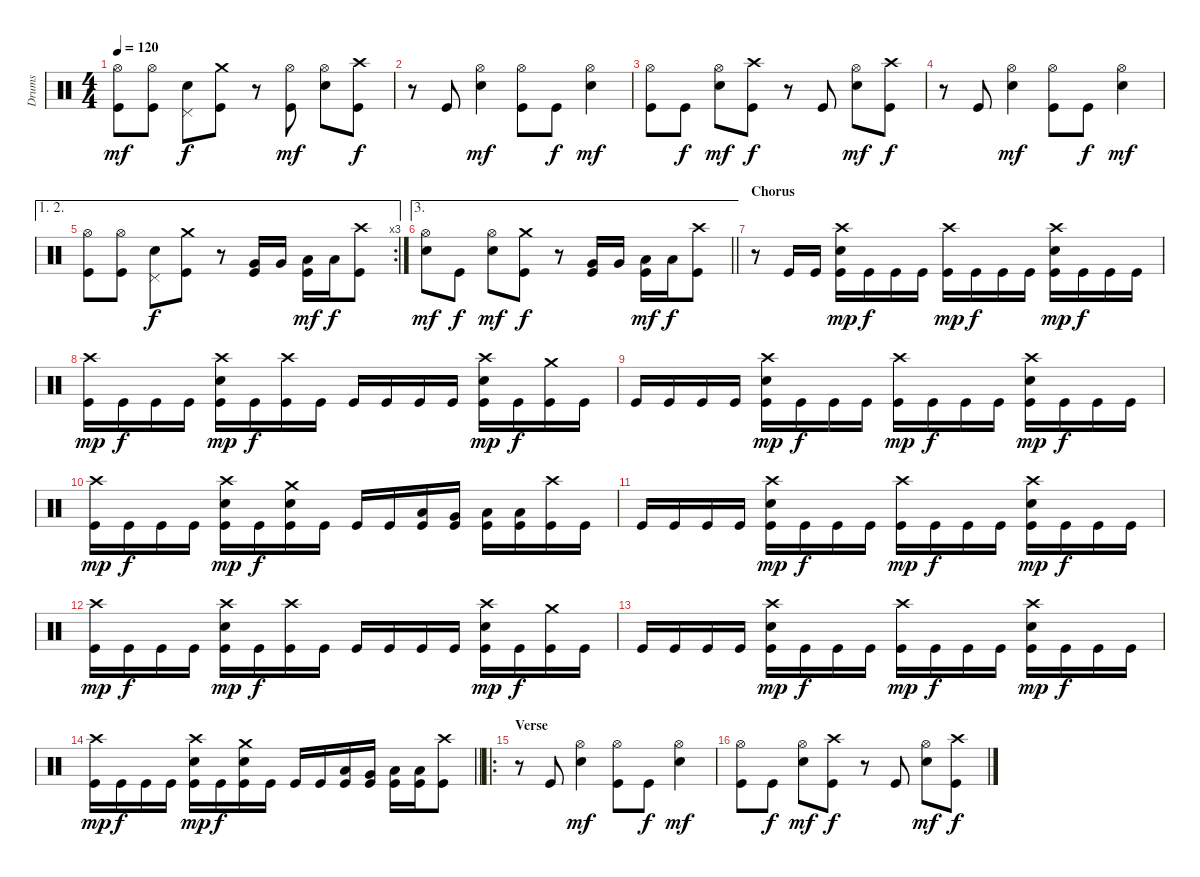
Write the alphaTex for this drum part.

\track ("Drums" "Drums") {instrument percussion}
\staff {score}
\articulation defaults
\ts (4 4)
\tempo 120
\clef neutral
\ks c
("Hi-Hat (open)" "Kick (hit)").8{dy mf} ("Hi-Hat (open)" "Kick (hit)").8 ("Snare (hit) 2" "Pedal Hi-Hat (hit)").8{dy f} ("Crash medium (hit)" "Kick (hit)").8 r.8 ("Hi-Hat (open)" "Kick (hit)").8{dy mf} ("Hi-Hat (open)" "Snare (hit) 2").8 ("Crash high (hit)" "Kick (hit)").8{dy f} |
r.8 "Kick (hit)".8 ("Hi-Hat (open)" "Snare (hit) 2").4{dy mf} ("Hi-Hat (open)" "Kick (hit)").8 "Kick (hit)".8{dy f} ("Hi-Hat (open)" "Snare (hit) 2").4{dy mf} |
("Hi-Hat (open)" "Kick (hit)").8 "Kick (hit)".8{dy f} ("Hi-Hat (open)" "Snare (hit) 2").8{dy mf} ("Crash high (hit)" "Kick (hit)").8{dy f} r.8 "Kick (hit)".8 ("Hi-Hat (open)" "Snare (hit) 2").8{dy mf} ("Crash high (hit)" "Kick (hit)").8{dy f} |
r.8 "Kick (hit)".8 ("Hi-Hat (open)" "Snare (hit) 2").4{dy mf} ("Hi-Hat (open)" "Kick (hit)").8 "Kick (hit)".8{dy f} ("Hi-Hat (open)" "Snare (hit) 2").4{dy mf} |
\ae (1 2)
\rc 3
("Hi-Hat (open)" "Kick (hit)").8 ("Hi-Hat (open)" "Kick (hit)").8 ("Snare (hit) 2" "Pedal Hi-Hat (hit)").8{dy f} ("Crash medium (hit)" "Kick (hit)").8 r.8 ("Very Low Tom (hit)" "Kick (hit)").16 "Very Low Tom (hit)".16 ("Low Floor Tom (hit)" "Kick (hit)").16{dy mf} "Low Floor Tom (hit)".16{dy f} ("Crash high (hit)" "Kick (hit)").8 |
\ae 3
\barLineRight lightlight
("Hi-Hat (open)" "Snare (hit) 2").8{dy mf} "Kick (hit)".8{dy f} ("Hi-Hat (open)" "Snare (hit) 2").8{dy mf} ("Crash medium (hit)" "Kick (hit)").8{dy f} r.8 ("Very Low Tom (hit)" "Kick (hit)").16 "Very Low Tom (hit)".16 ("Low Floor Tom (hit)" "Kick (hit)").16{dy mf} "Low Floor Tom (hit)".16{dy f} ("Crash high (hit)" "Kick (hit)").8 |
\section ("" "Chorus")
r.8 "Kick (hit)".16 "Kick (hit)".16 ("Crash high (hit)" "Snare (hit) 2" "Kick (hit)").16{dy mp} "Kick (hit)".16{dy f} "Kick (hit)".16 "Kick (hit)".16 ("Crash high (hit)" "Kick (hit)").16{dy mp} "Kick (hit)".16{dy f} "Kick (hit)".16 "Kick (hit)".16 ("Crash high (hit)" "Snare (hit) 2" "Kick (hit)").16{dy mp} "Kick (hit)".16{dy f} "Kick (hit)".16 "Kick (hit)".16 |
("Crash high (hit)" "Kick (hit)").16{dy mp} "Kick (hit)".16{dy f} "Kick (hit)".16 "Kick (hit)".16 ("Crash high (hit)" "Snare (hit) 2" "Kick (hit)").16{dy mp} "Kick (hit)".16{dy f} ("Crash high (hit)" "Kick (hit)").16 "Kick (hit)".16 "Kick (hit)".16 "Kick (hit)".16 "Kick (hit)".16 "Kick (hit)".16 ("Crash high (hit)" "Snare (hit) 2" "Kick (hit)").16{dy mp} "Kick (hit)".16{dy f} ("Crash medium (hit)" "Kick (hit)").16 "Kick (hit)".16 |
"Kick (hit)".16 "Kick (hit)".16 "Kick (hit)".16 "Kick (hit)".16 ("Crash high (hit)" "Snare (hit) 2" "Kick (hit)").16{dy mp} "Kick (hit)".16{dy f} "Kick (hit)".16 "Kick (hit)".16 ("Crash high (hit)" "Kick (hit)").16{dy mp} "Kick (hit)".16{dy f} "Kick (hit)".16 "Kick (hit)".16 ("Crash high (hit)" "Snare (hit) 2" "Kick (hit)").16{dy mp} "Kick (hit)".16{dy f} "Kick (hit)".16 "Kick (hit)".16 |
("Crash high (hit)" "Kick (hit)").16{dy mp} "Kick (hit)".16{dy f} "Kick (hit)".16 "Kick (hit)".16 ("Crash high (hit)" "Snare (hit) 2" "Kick (hit)").16{dy mp} "Kick (hit)".16{dy f} ("Crash medium (hit)" "Snare (hit) 2" "Kick (hit)").16 "Kick (hit)".16 "Kick (hit)".16 "Kick (hit)".16 ("Low Tom (hit)" "Kick (hit)").16 ("Very Low Tom (hit)" "Kick (hit)").16 ("Low Floor Tom (hit)" "Kick (hit)").16 ("Low Floor Tom (hit)" "Kick (hit)").16 ("Crash high (hit)" "Kick (hit)").16 "Kick (hit)".16 |
"Kick (hit)".16 "Kick (hit)".16 "Kick (hit)".16 "Kick (hit)".16 ("Crash high (hit)" "Snare (hit) 2" "Kick (hit)").16{dy mp} "Kick (hit)".16{dy f} "Kick (hit)".16 "Kick (hit)".16 ("Crash high (hit)" "Kick (hit)").16{dy mp} "Kick (hit)".16{dy f} "Kick (hit)".16 "Kick (hit)".16 ("Crash high (hit)" "Snare (hit) 2" "Kick (hit)").16{dy mp} "Kick (hit)".16{dy f} "Kick (hit)".16 "Kick (hit)".16 |
("Crash high (hit)" "Kick (hit)").16{dy mp} "Kick (hit)".16{dy f} "Kick (hit)".16 "Kick (hit)".16 ("Crash high (hit)" "Snare (hit) 2" "Kick (hit)").16{dy mp} "Kick (hit)".16{dy f} ("Crash high (hit)" "Kick (hit)").16 "Kick (hit)".16 "Kick (hit)".16 "Kick (hit)".16 "Kick (hit)".16 "Kick (hit)".16 ("Crash high (hit)" "Snare (hit) 2" "Kick (hit)").16{dy mp} "Kick (hit)".16{dy f} ("Crash medium (hit)" "Kick (hit)").16 "Kick (hit)".16 |
"Kick (hit)".16 "Kick (hit)".16 "Kick (hit)".16 "Kick (hit)".16 ("Crash high (hit)" "Snare (hit) 2" "Kick (hit)").16{dy mp} "Kick (hit)".16{dy f} "Kick (hit)".16 "Kick (hit)".16 ("Crash high (hit)" "Kick (hit)").16{dy mp} "Kick (hit)".16{dy f} "Kick (hit)".16 "Kick (hit)".16 ("Crash high (hit)" "Snare (hit) 2" "Kick (hit)").16{dy mp} "Kick (hit)".16{dy f} "Kick (hit)".16 "Kick (hit)".16 |
\barLineRight lightlight
("Crash high (hit)" "Kick (hit)").16{dy mp} "Kick (hit)".16{dy f} "Kick (hit)".16 "Kick (hit)".16 ("Crash high (hit)" "Snare (hit) 2" "Kick (hit)").16{dy mp} "Kick (hit)".16{dy f} ("Crash medium (hit)" "Snare (hit) 2" "Kick (hit)").16 "Kick (hit)".16 "Kick (hit)".16 "Kick (hit)".16 ("Low Tom (hit)" "Kick (hit)").16 ("Very Low Tom (hit)" "Kick (hit)").16 ("Low Floor Tom (hit)" "Kick (hit)").16 ("Low Floor Tom (hit)" "Kick (hit)").16 ("Crash high (hit)" "Kick (hit)").8 |
\ro
\section ("" "Verse")
r.8 "Kick (hit)".8 ("Hi-Hat (open)" "Snare (hit) 2").4{dy mf} ("Hi-Hat (open)" "Kick (hit)").8 "Kick (hit)".8{dy f} ("Hi-Hat (open)" "Snare (hit) 2").4{dy mf} |
("Hi-Hat (open)" "Kick (hit)").8 "Kick (hit)".8{dy f} ("Hi-Hat (open)" "Snare (hit) 2").8{dy mf} ("Crash high (hit)" "Kick (hit)").8{dy f} r.8 "Kick (hit)".8 ("Hi-Hat (open)" "Snare (hit) 2").8{dy mf} ("Crash high (hit)" "Kick (hit)").8{dy f}
